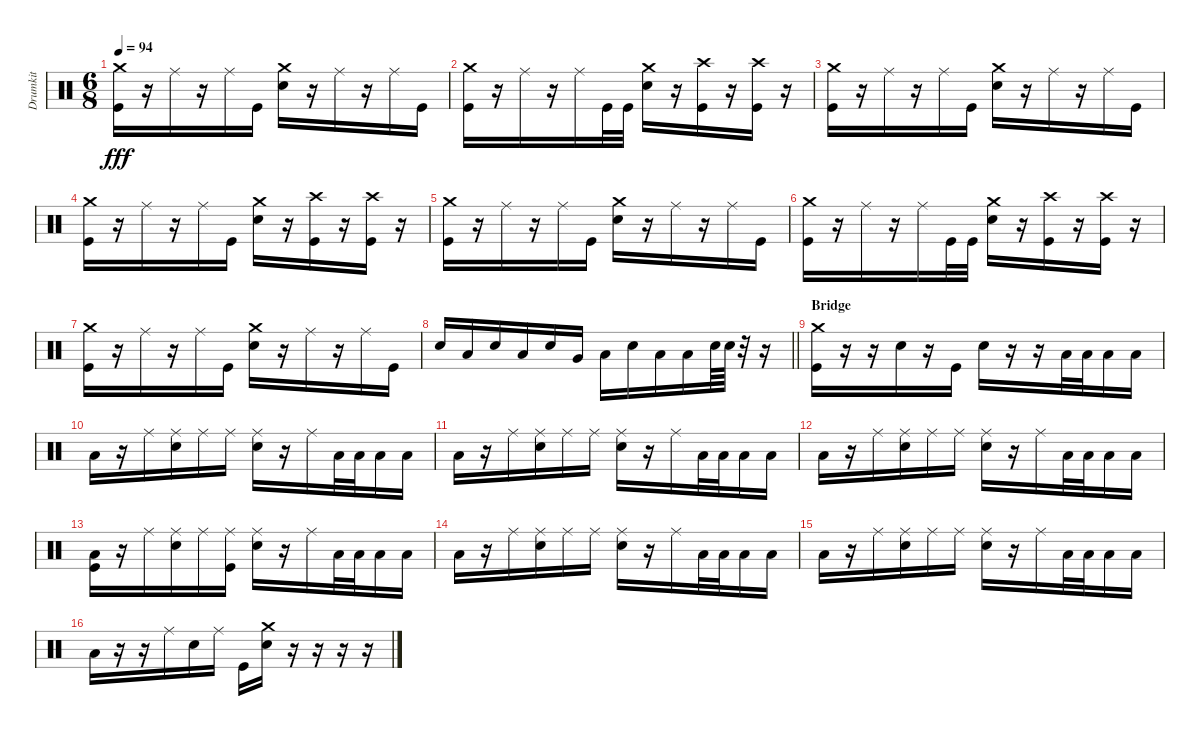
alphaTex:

\track ("Drumkit" "Drumkit") {instrument percussion}
\staff {score}
\articulation defaults
\ts (6 8)
\tempo 94
\clef neutral
\ks c
("Crash medium (hit)" "Kick (hit)").16{dy fff} r.16 "Ride (middle)".16 r.16 "Ride (middle)".16 "Kick (hit)".16 ("Crash medium (hit)" "Snare (hit) 2").16 r.16 "Ride (middle)".16 r.16 "Ride (middle)".16 "Kick (hit)".16 |
("Crash medium (hit)" "Kick (hit)").16 r.16 "Ride (middle)".16 r.16 "Ride (middle)".16 "Kick (hit)".32 "Kick (hit)".32 ("Crash medium (hit)" "Snare (hit) 2").16 r.16 ("Crash high (hit)" "Kick (hit)").16 r.16 ("Crash high (hit)" "Kick (hit)").16 r.16 |
("Crash medium (hit)" "Kick (hit)").16 r.16 "Ride (middle)".16 r.16 "Ride (middle)".16 "Kick (hit)".16 ("Crash medium (hit)" "Snare (hit) 2").16 r.16 "Ride (middle)".16 r.16 "Ride (middle)".16 "Kick (hit)".16 |
("Crash medium (hit)" "Kick (hit)").16 r.16 "Ride (middle)".16 r.16 "Ride (middle)".16 "Kick (hit)".16 ("Crash medium (hit)" "Snare (hit) 2").16 r.16 ("Crash high (hit)" "Kick (hit)").16 r.16 ("Crash high (hit)" "Kick (hit)").16 r.16 |
("Crash medium (hit)" "Kick (hit)").16 r.16 "Ride (middle)".16 r.16 "Ride (middle)".16 "Kick (hit)".16 ("Crash medium (hit)" "Snare (hit) 2").16 r.16 "Ride (middle)".16 r.16 "Ride (middle)".16 "Kick (hit)".16 |
("Crash medium (hit)" "Kick (hit)").16 r.16 "Ride (middle)".16 r.16 "Ride (middle)".16 "Kick (hit)".32 "Kick (hit)".32 ("Crash medium (hit)" "Snare (hit) 2").16 r.16 ("Crash high (hit)" "Kick (hit)").16 r.16 ("Crash high (hit)" "Kick (hit)").16 r.16 |
("Crash medium (hit)" "Kick (hit)").16 r.16 "Ride (middle)".16 r.16 "Ride (middle)".16 "Kick (hit)".16 ("Crash medium (hit)" "Snare (hit) 2").16 r.16 "Ride (middle)".16 r.16 "Ride (middle)".16 "Kick (hit)".16 |
\barLineRight lightlight "Snare (hit) 2".16 "Low Tom (hit)".16 "Snare (hit) 2".16 "Low Tom (hit)".16 "Snare (hit) 2".16 "Very Low Tom (hit)".16 "Low Floor Tom (hit)".16 "Snare (hit) 2".16 "Low Floor Tom (hit)".16 "Low Floor Tom (hit)".16 "Snare (hit) 2".64 "Snare (hit) 2".64
r.32 r.16 |
\section ("" "Bridge")
("Crash medium (hit)" "Kick (hit)").16 r.16 r.16 "Snare (hit) 2".16 r.16 "Kick (hit)".16 "Snare (hit) 2".16 r.16 r.16 "Low Tom (hit)".32 "Low Tom (hit)".32 "Low Tom (hit)".16 "Low Tom (hit)".16 |
"Low Floor Tom (hit)".16 r.16 "Ride (middle)".16 ("Ride (middle)" "Snare (hit) 2").16 "Ride (middle)".16 "Ride (middle)".16 ("Ride (middle)" "Snare (hit) 2").16 r.16 "Ride (middle)".16 "Low Tom (hit)".32 "Low Tom (hit)".32 "Low Tom (hit)".16 "Low Tom (hit)".16 |
"Low Floor Tom (hit)".16 r.16 "Ride (middle)".16 ("Ride (middle)" "Snare (hit) 2").16 "Ride (middle)".16 "Ride (middle)".16 ("Ride (middle)" "Snare (hit) 2").16 r.16 "Ride (middle)".16 "Low Tom (hit)".32 "Low Tom (hit)".32 "Low Tom (hit)".16 "Low Tom (hit)".16 |
"Low Floor Tom (hit)".16 r.16 "Ride (middle)".16 ("Ride (middle)" "Snare (hit) 2").16 "Ride (middle)".16 "Ride (middle)".16 ("Ride (middle)" "Snare (hit) 2").16 r.16 "Ride (middle)".16 "Low Tom (hit)".32 "Low Tom (hit)".32 "Low Tom (hit)".16 "Low Tom (hit)".16 |
("Low Floor Tom (hit)" "Kick (hit)").16 r.16 "Ride (middle)".16 ("Ride (middle)" "Snare (hit) 2").16 "Ride (middle)".16 ("Ride (middle)" "Kick (hit)").16 ("Ride (middle)" "Snare (hit) 2").16 r.16 "Ride (middle)".16 "Low Tom (hit)".32 "Low Tom (hit)".32 "Low Tom (hit)".16 "Low Tom (hit)".16 |
"Low Floor Tom (hit)".16 r.16 "Ride (middle)".16 ("Ride (middle)" "Snare (hit) 2").16 "Ride (middle)".16 "Ride (middle)".16 ("Ride (middle)" "Snare (hit) 2").16 r.16 "Ride (middle)".16 "Low Tom (hit)".32 "Low Tom (hit)".32 "Low Tom (hit)".16 "Low Tom (hit)".16 |
"Low Floor Tom (hit)".16 r.16 "Ride (middle)".16 ("Ride (middle)" "Snare (hit) 2").16 "Ride (middle)".16 "Ride (middle)".16 ("Ride (middle)" "Snare (hit) 2").16 r.16 "Ride (middle)".16 "Low Tom (hit)".32 "Low Tom (hit)".32 "Low Tom (hit)".16 "Low Tom (hit)".16 |
"Low Floor Tom (hit)".16 r.16 r.16 "Ride (middle)".16 "Snare (hit) 2".16 "Ride (middle)".16 "Kick (hit)".16 ("Crash medium (hit)" "Snare (hit) 2").16 r.16 r.16 r.16 r.16
